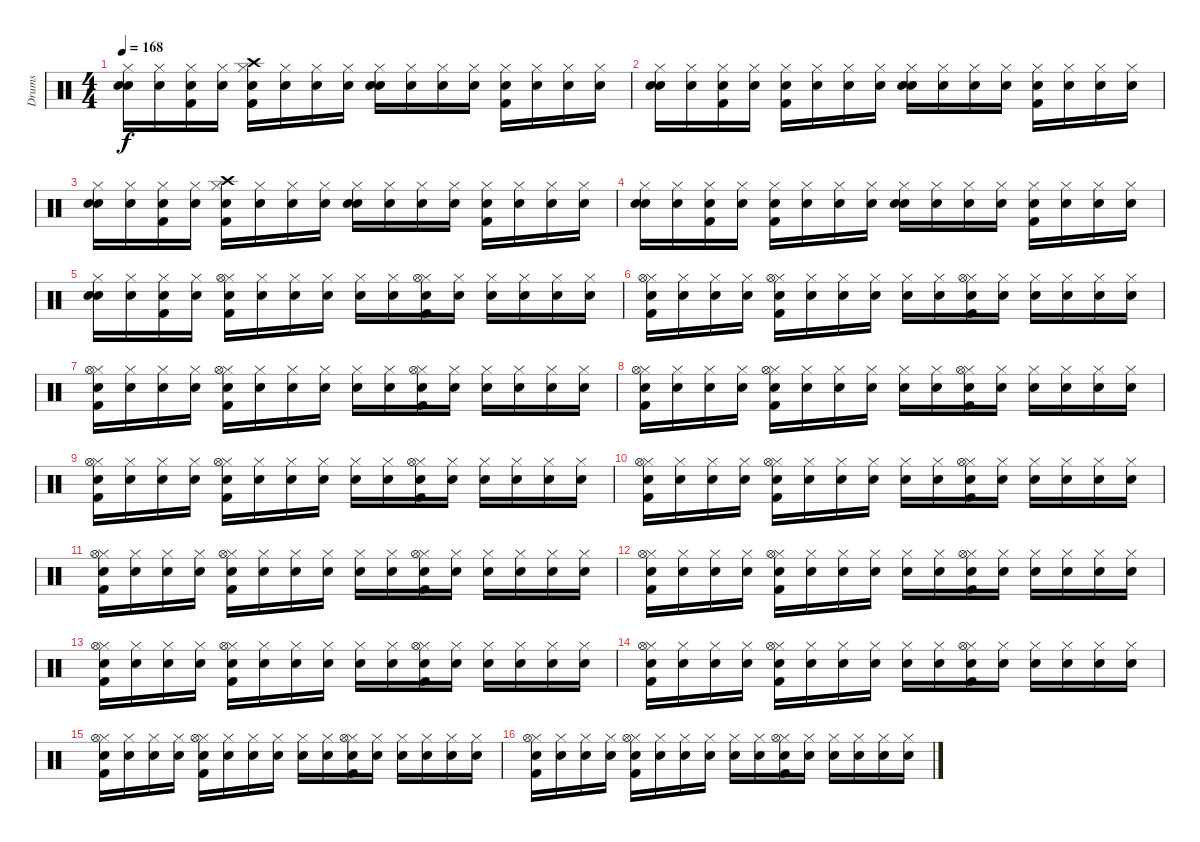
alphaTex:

\track ("Drums" "Drums") {instrument percussion}
\staff {score}
\articulation defaults
\ts (4 4)
\tempo 168
\clef neutral
\ks c
("Snare (hit)" "Snare (hit) 2" "Hi-Hat (closed)").16{dy f} ("Snare (hit)" "Hi-Hat (closed)").16 ("Snare (hit)" "Kick (hit) 2" "Hi-Hat (closed)").16 ("Snare (hit)" "Hi-Hat (closed)").16 ("Snare (hit)" "Kick (hit) 2" "Hi-Hat (closed)" "Crash high (hit)").16 ("Snare (hit)" "Hi-Hat (closed)").16 ("Snare (hit)" "Hi-Hat (closed)").16 ("Snare (hit)" "Hi-Hat (closed)").16 ("Snare (hit)" "Snare (hit) 2" "Hi-Hat (closed)").16 ("Snare (hit)" "Hi-Hat (closed)").16 ("Snare (hit)" "Hi-Hat (closed)").16 ("Snare (hit)" "Hi-Hat (closed)").16 ("Snare (hit)" "Kick (hit) 2" "Hi-Hat (closed)").16 ("Snare (hit)" "Hi-Hat (closed)").16 ("Snare (hit)" "Hi-Hat (closed)").16 ("Snare (hit)" "Hi-Hat (closed)").16 |
("Snare (hit)" "Snare (hit) 2" "Hi-Hat (closed)").16 ("Snare (hit)" "Hi-Hat (closed)").16 ("Snare (hit)" "Kick (hit) 2" "Hi-Hat (closed)").16 ("Snare (hit)" "Hi-Hat (closed)").16 ("Snare (hit)" "Kick (hit) 2" "Hi-Hat (closed)").16 ("Snare (hit)" "Hi-Hat (closed)").16 ("Snare (hit)" "Hi-Hat (closed)").16 ("Snare (hit)" "Hi-Hat (closed)").16 ("Snare (hit)" "Snare (hit) 2" "Hi-Hat (closed)").16 ("Snare (hit)" "Hi-Hat (closed)").16 ("Snare (hit)" "Hi-Hat (closed)").16 ("Snare (hit)" "Hi-Hat (closed)").16 ("Snare (hit)" "Kick (hit) 2" "Hi-Hat (closed)").16 ("Snare (hit)" "Hi-Hat (closed)").16 ("Snare (hit)" "Hi-Hat (closed)").16 ("Snare (hit)" "Hi-Hat (closed)").16 |
("Snare (hit)" "Snare (hit) 2" "Hi-Hat (closed)").16 ("Snare (hit)" "Hi-Hat (closed)").16 ("Snare (hit)" "Kick (hit) 2" "Hi-Hat (closed)").16 ("Snare (hit)" "Hi-Hat (closed)").16 ("Snare (hit)" "Kick (hit) 2" "Hi-Hat (closed)" "Crash high (hit)").16 ("Snare (hit)" "Hi-Hat (closed)").16 ("Snare (hit)" "Hi-Hat (closed)").16 ("Snare (hit)" "Hi-Hat (closed)").16 ("Snare (hit)" "Snare (hit) 2" "Hi-Hat (closed)").16 ("Snare (hit)" "Hi-Hat (closed)").16 ("Snare (hit)" "Hi-Hat (closed)").16 ("Snare (hit)" "Hi-Hat (closed)").16 ("Snare (hit)" "Kick (hit) 2" "Hi-Hat (closed)").16 ("Snare (hit)" "Hi-Hat (closed)").16 ("Snare (hit)" "Hi-Hat (closed)").16 ("Snare (hit)" "Hi-Hat (closed)").16 |
("Snare (hit)" "Snare (hit) 2" "Hi-Hat (closed)").16 ("Snare (hit)" "Hi-Hat (closed)").16 ("Snare (hit)" "Kick (hit) 2" "Hi-Hat (closed)").16 ("Snare (hit)" "Hi-Hat (closed)").16 ("Snare (hit)" "Kick (hit) 2" "Hi-Hat (closed)").16 ("Snare (hit)" "Hi-Hat (closed)").16 ("Snare (hit)" "Hi-Hat (closed)").16 ("Snare (hit)" "Hi-Hat (closed)").16 ("Snare (hit)" "Snare (hit) 2" "Hi-Hat (closed)").16 ("Snare (hit)" "Hi-Hat (closed)").16 ("Snare (hit)" "Hi-Hat (closed)").16 ("Snare (hit)" "Hi-Hat (closed)").16 ("Snare (hit)" "Kick (hit) 2" "Hi-Hat (closed)").16 ("Snare (hit)" "Hi-Hat (closed)").16 ("Snare (hit)" "Hi-Hat (closed)").16 ("Snare (hit)" "Hi-Hat (closed)").16 |
("Snare (hit)" "Snare (hit) 2" "Hi-Hat (closed)").16 ("Snare (hit)" "Hi-Hat (closed)").16 ("Snare (hit)" "Kick (hit) 2" "Hi-Hat (closed)").16 ("Snare (hit)" "Hi-Hat (closed)").16 ("Snare (hit)" "Kick (hit) 2" "Hi-Hat (closed)" "Hi-Hat (open)").16 ("Snare (hit)" "Hi-Hat (closed)").16 ("Snare (hit)" "Hi-Hat (closed)").16 ("Snare (hit)" "Hi-Hat (closed)").16 ("Snare (hit)" "Hi-Hat (closed)").16 ("Snare (hit)" "Hi-Hat (closed)").16 ("Snare (hit)" "Kick (hit) 2" "Hi-Hat (closed)" "Hi-Hat (open)").16 ("Snare (hit)" "Hi-Hat (closed)").16 ("Snare (hit)" "Hi-Hat (closed)").16 ("Snare (hit)" "Hi-Hat (closed)").16 ("Snare (hit)" "Hi-Hat (closed)").16 ("Snare (hit)" "Hi-Hat (closed)").16 |
("Snare (hit)" "Kick (hit) 2" "Hi-Hat (closed)" "Hi-Hat (open)").16 ("Snare (hit)" "Hi-Hat (closed)").16 ("Snare (hit)" "Hi-Hat (closed)").16 ("Snare (hit)" "Hi-Hat (closed)").16 ("Snare (hit)" "Kick (hit) 2" "Hi-Hat (closed)" "Hi-Hat (open)").16 ("Snare (hit)" "Hi-Hat (closed)").16 ("Snare (hit)" "Hi-Hat (closed)").16 ("Snare (hit)" "Hi-Hat (closed)").16 ("Snare (hit)" "Hi-Hat (closed)").16 ("Snare (hit)" "Hi-Hat (closed)").16 ("Snare (hit)" "Kick (hit) 2" "Hi-Hat (closed)" "Hi-Hat (open)").16 ("Snare (hit)" "Hi-Hat (closed)").16 ("Snare (hit)" "Hi-Hat (closed)").16 ("Snare (hit)" "Hi-Hat (closed)").16 ("Snare (hit)" "Hi-Hat (closed)").16 ("Snare (hit)" "Hi-Hat (closed)").16 |
("Snare (hit)" "Kick (hit) 2" "Hi-Hat (closed)" "Hi-Hat (open)").16 ("Snare (hit)" "Hi-Hat (closed)").16 ("Snare (hit)" "Hi-Hat (closed)").16 ("Snare (hit)" "Hi-Hat (closed)").16 ("Snare (hit)" "Kick (hit) 2" "Hi-Hat (closed)" "Hi-Hat (open)").16 ("Snare (hit)" "Hi-Hat (closed)").16 ("Snare (hit)" "Hi-Hat (closed)").16 ("Snare (hit)" "Hi-Hat (closed)").16 ("Snare (hit)" "Hi-Hat (closed)").16 ("Snare (hit)" "Hi-Hat (closed)").16 ("Snare (hit)" "Kick (hit) 2" "Hi-Hat (closed)" "Hi-Hat (open)").16 ("Snare (hit)" "Hi-Hat (closed)").16 ("Snare (hit)" "Hi-Hat (closed)").16 ("Snare (hit)" "Hi-Hat (closed)").16 ("Snare (hit)" "Hi-Hat (closed)").16 ("Snare (hit)" "Hi-Hat (closed)").16 |
("Snare (hit)" "Kick (hit) 2" "Hi-Hat (closed)" "Hi-Hat (open)").16 ("Snare (hit)" "Hi-Hat (closed)").16 ("Snare (hit)" "Hi-Hat (closed)").16 ("Snare (hit)" "Hi-Hat (closed)").16 ("Snare (hit)" "Kick (hit) 2" "Hi-Hat (closed)" "Hi-Hat (open)").16 ("Snare (hit)" "Hi-Hat (closed)").16 ("Snare (hit)" "Hi-Hat (closed)").16 ("Snare (hit)" "Hi-Hat (closed)").16 ("Snare (hit)" "Hi-Hat (closed)").16 ("Snare (hit)" "Hi-Hat (closed)").16 ("Snare (hit)" "Kick (hit) 2" "Hi-Hat (closed)" "Hi-Hat (open)").16 ("Snare (hit)" "Hi-Hat (closed)").16 ("Snare (hit)" "Hi-Hat (closed)").16 ("Snare (hit)" "Hi-Hat (closed)").16 ("Snare (hit)" "Hi-Hat (closed)").16 ("Snare (hit)" "Hi-Hat (closed)").16 |
("Snare (hit)" "Kick (hit) 2" "Hi-Hat (closed)" "Hi-Hat (open)").16 ("Snare (hit)" "Hi-Hat (closed)").16 ("Snare (hit)" "Hi-Hat (closed)").16 ("Snare (hit)" "Hi-Hat (closed)").16 ("Snare (hit)" "Kick (hit) 2" "Hi-Hat (closed)" "Hi-Hat (open)").16 ("Snare (hit)" "Hi-Hat (closed)").16 ("Snare (hit)" "Hi-Hat (closed)").16 ("Snare (hit)" "Hi-Hat (closed)").16 ("Snare (hit)" "Hi-Hat (closed)").16 ("Snare (hit)" "Hi-Hat (closed)").16 ("Snare (hit)" "Kick (hit) 2" "Hi-Hat (closed)" "Hi-Hat (open)").16 ("Snare (hit)" "Hi-Hat (closed)").16 ("Snare (hit)" "Hi-Hat (closed)").16 ("Snare (hit)" "Hi-Hat (closed)").16 ("Snare (hit)" "Hi-Hat (closed)").16 ("Snare (hit)" "Hi-Hat (closed)").16 |
("Snare (hit)" "Kick (hit) 2" "Hi-Hat (closed)" "Hi-Hat (open)").16 ("Snare (hit)" "Hi-Hat (closed)").16 ("Snare (hit)" "Hi-Hat (closed)").16 ("Snare (hit)" "Hi-Hat (closed)").16 ("Snare (hit)" "Kick (hit) 2" "Hi-Hat (closed)" "Hi-Hat (open)").16 ("Snare (hit)" "Hi-Hat (closed)").16 ("Snare (hit)" "Hi-Hat (closed)").16 ("Snare (hit)" "Hi-Hat (closed)").16 ("Snare (hit)" "Hi-Hat (closed)").16 ("Snare (hit)" "Hi-Hat (closed)").16 ("Snare (hit)" "Kick (hit) 2" "Hi-Hat (closed)" "Hi-Hat (open)").16 ("Snare (hit)" "Hi-Hat (closed)").16 ("Snare (hit)" "Hi-Hat (closed)").16 ("Snare (hit)" "Hi-Hat (closed)").16 ("Snare (hit)" "Hi-Hat (closed)").16 ("Snare (hit)" "Hi-Hat (closed)").16 |
("Snare (hit)" "Kick (hit) 2" "Hi-Hat (closed)" "Hi-Hat (open)").16 ("Snare (hit)" "Hi-Hat (closed)").16 ("Snare (hit)" "Hi-Hat (closed)").16 ("Snare (hit)" "Hi-Hat (closed)").16 ("Snare (hit)" "Kick (hit) 2" "Hi-Hat (closed)" "Hi-Hat (open)").16 ("Snare (hit)" "Hi-Hat (closed)").16 ("Snare (hit)" "Hi-Hat (closed)").16 ("Snare (hit)" "Hi-Hat (closed)").16 ("Snare (hit)" "Hi-Hat (closed)").16 ("Snare (hit)" "Hi-Hat (closed)").16 ("Snare (hit)" "Kick (hit) 2" "Hi-Hat (closed)" "Hi-Hat (open)").16 ("Snare (hit)" "Hi-Hat (closed)").16 ("Snare (hit)" "Hi-Hat (closed)").16 ("Snare (hit)" "Hi-Hat (closed)").16 ("Snare (hit)" "Hi-Hat (closed)").16 ("Snare (hit)" "Hi-Hat (closed)").16 |
("Snare (hit)" "Kick (hit) 2" "Hi-Hat (closed)" "Hi-Hat (open)").16 ("Snare (hit)" "Hi-Hat (closed)").16 ("Snare (hit)" "Hi-Hat (closed)").16 ("Snare (hit)" "Hi-Hat (closed)").16 ("Snare (hit)" "Kick (hit) 2" "Hi-Hat (closed)" "Hi-Hat (open)").16 ("Snare (hit)" "Hi-Hat (closed)").16 ("Snare (hit)" "Hi-Hat (closed)").16 ("Snare (hit)" "Hi-Hat (closed)").16 ("Snare (hit)" "Hi-Hat (closed)").16 ("Snare (hit)" "Hi-Hat (closed)").16 ("Snare (hit)" "Kick (hit) 2" "Hi-Hat (closed)" "Hi-Hat (open)").16 ("Snare (hit)" "Hi-Hat (closed)").16 ("Snare (hit)" "Hi-Hat (closed)").16 ("Snare (hit)" "Hi-Hat (closed)").16 ("Snare (hit)" "Hi-Hat (closed)").16 ("Snare (hit)" "Hi-Hat (closed)").16 |
("Snare (hit)" "Kick (hit) 2" "Hi-Hat (closed)" "Hi-Hat (open)").16 ("Snare (hit)" "Hi-Hat (closed)").16 ("Snare (hit)" "Hi-Hat (closed)").16 ("Snare (hit)" "Hi-Hat (closed)").16 ("Snare (hit)" "Kick (hit) 2" "Hi-Hat (closed)" "Hi-Hat (open)").16 ("Snare (hit)" "Hi-Hat (closed)").16 ("Snare (hit)" "Hi-Hat (closed)").16 ("Snare (hit)" "Hi-Hat (closed)").16 ("Snare (hit)" "Hi-Hat (closed)").16 ("Snare (hit)" "Hi-Hat (closed)").16 ("Snare (hit)" "Kick (hit) 2" "Hi-Hat (closed)" "Hi-Hat (open)").16 ("Snare (hit)" "Hi-Hat (closed)").16 ("Snare (hit)" "Hi-Hat (closed)").16 ("Snare (hit)" "Hi-Hat (closed)").16 ("Snare (hit)" "Hi-Hat (closed)").16 ("Snare (hit)" "Hi-Hat (closed)").16 |
("Snare (hit)" "Kick (hit) 2" "Hi-Hat (closed)" "Hi-Hat (open)").16 ("Snare (hit)" "Hi-Hat (closed)").16 ("Snare (hit)" "Hi-Hat (closed)").16 ("Snare (hit)" "Hi-Hat (closed)").16 ("Snare (hit)" "Kick (hit) 2" "Hi-Hat (closed)" "Hi-Hat (open)").16 ("Snare (hit)" "Hi-Hat (closed)").16 ("Snare (hit)" "Hi-Hat (closed)").16 ("Snare (hit)" "Hi-Hat (closed)").16 ("Snare (hit)" "Hi-Hat (closed)").16 ("Snare (hit)" "Hi-Hat (closed)").16 ("Snare (hit)" "Kick (hit) 2" "Hi-Hat (closed)" "Hi-Hat (open)").16 ("Snare (hit)" "Hi-Hat (closed)").16 ("Snare (hit)" "Hi-Hat (closed)").16 ("Snare (hit)" "Hi-Hat (closed)").16 ("Snare (hit)" "Hi-Hat (closed)").16 ("Snare (hit)" "Hi-Hat (closed)").16 |
("Snare (hit)" "Kick (hit) 2" "Hi-Hat (closed)" "Hi-Hat (open)").16 ("Snare (hit)" "Hi-Hat (closed)").16 ("Snare (hit)" "Hi-Hat (closed)").16 ("Snare (hit)" "Hi-Hat (closed)").16 ("Snare (hit)" "Kick (hit) 2" "Hi-Hat (closed)" "Hi-Hat (open)").16 ("Snare (hit)" "Hi-Hat (closed)").16 ("Snare (hit)" "Hi-Hat (closed)").16 ("Snare (hit)" "Hi-Hat (closed)").16 ("Snare (hit)" "Hi-Hat (closed)").16 ("Snare (hit)" "Hi-Hat (closed)").16 ("Snare (hit)" "Kick (hit) 2" "Hi-Hat (closed)" "Hi-Hat (open)").16 ("Snare (hit)" "Hi-Hat (closed)").16 ("Snare (hit)" "Hi-Hat (closed)").16 ("Snare (hit)" "Hi-Hat (closed)").16 ("Snare (hit)" "Hi-Hat (closed)").16 ("Snare (hit)" "Hi-Hat (closed)").16 |
("Snare (hit)" "Kick (hit) 2" "Hi-Hat (closed)" "Hi-Hat (open)").16 ("Snare (hit)" "Hi-Hat (closed)").16 ("Snare (hit)" "Hi-Hat (closed)").16 ("Snare (hit)" "Hi-Hat (closed)").16 ("Snare (hit)" "Kick (hit) 2" "Hi-Hat (closed)" "Hi-Hat (open)").16 ("Snare (hit)" "Hi-Hat (closed)").16 ("Snare (hit)" "Hi-Hat (closed)").16 ("Snare (hit)" "Hi-Hat (closed)").16 ("Snare (hit)" "Hi-Hat (closed)").16 ("Snare (hit)" "Hi-Hat (closed)").16 ("Snare (hit)" "Kick (hit) 2" "Hi-Hat (closed)" "Hi-Hat (open)").16 ("Snare (hit)" "Hi-Hat (closed)").16 ("Snare (hit)" "Hi-Hat (closed)").16 ("Snare (hit)" "Hi-Hat (closed)").16 ("Snare (hit)" "Hi-Hat (closed)").16 ("Snare (hit)" "Hi-Hat (closed)").16
